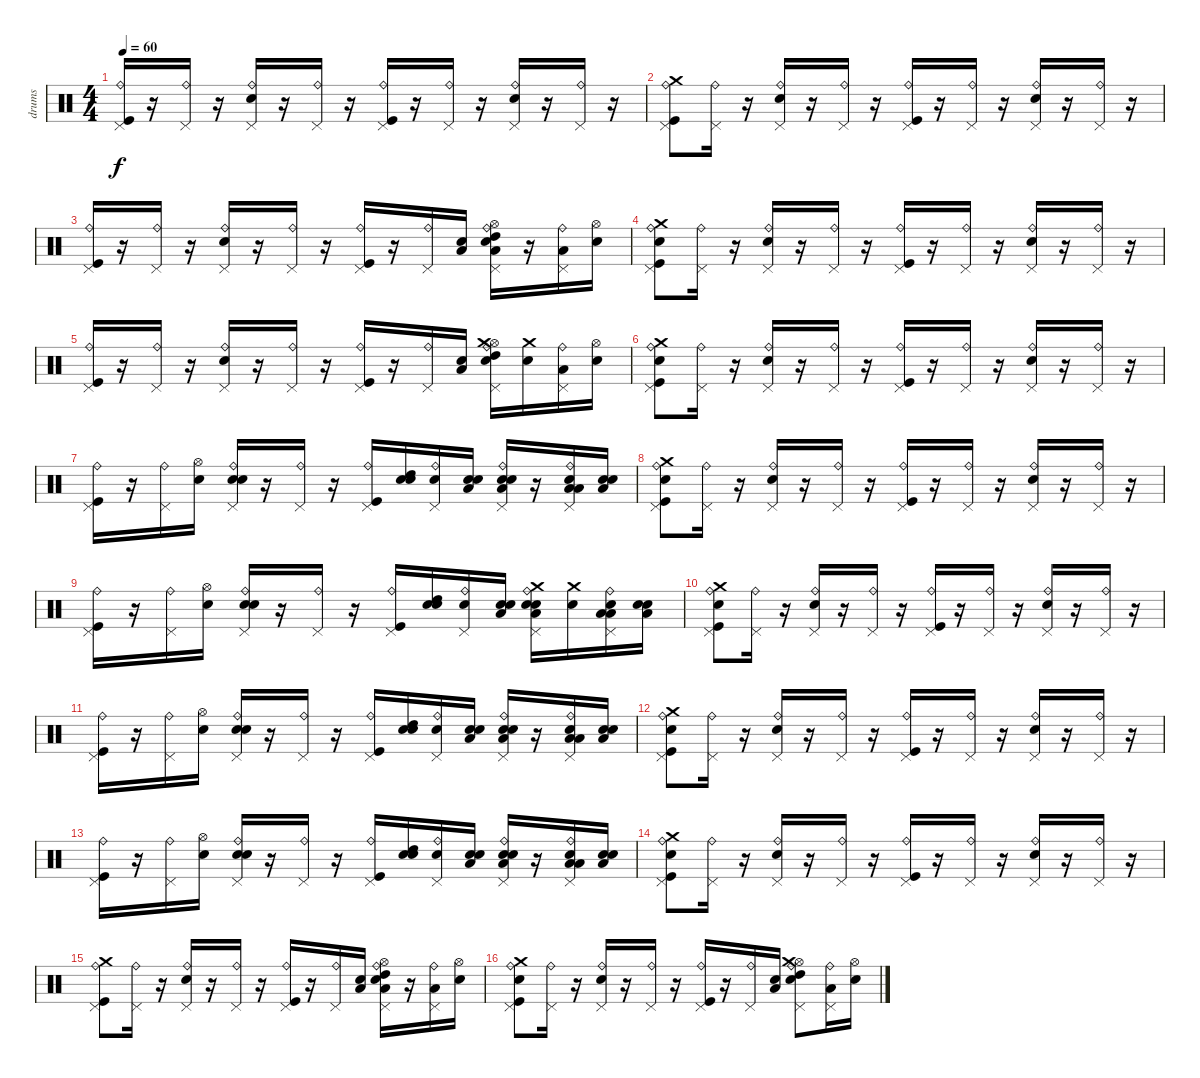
\track ("drums" "drums") {instrument percussion}
\staff {score}
\articulation defaults
\ts (4 4)
\tempo 60
\clef neutral
\ks c
("Kick (hit)" "Pedal Hi-Hat (hit)" "Ride (bell)").16{dy f} r.16 ("Pedal Hi-Hat (hit)" "Ride (bell)").16 r.16 ("Snare (hit) 2" "Pedal Hi-Hat (hit)" "Ride (bell)").16 r.16 ("Pedal Hi-Hat (hit)" "Ride (bell)").16 r.16 ("Kick (hit)" "Pedal Hi-Hat (hit)" "Ride (bell)").16 r.16 ("Pedal Hi-Hat (hit)" "Ride (bell)").16 r.16 ("Snare (hit) 2" "Pedal Hi-Hat (hit)" "Ride (bell)").16 r.16 ("Pedal Hi-Hat (hit)" "Ride (bell)").16 r.16 |
("Kick (hit)" "Pedal Hi-Hat (hit)" "Ride (bell)" "Crash medium (hit)").8 ("Pedal Hi-Hat (hit)" "Ride (bell)").16 r.16 ("Snare (hit) 2" "Pedal Hi-Hat (hit)" "Ride (bell)").16 r.16 ("Pedal Hi-Hat (hit)" "Ride (bell)").16 r.16 ("Kick (hit)" "Pedal Hi-Hat (hit)" "Ride (bell)").16 r.16 ("Pedal Hi-Hat (hit)" "Ride (bell)").16 r.16 ("Snare (hit) 2" "Pedal Hi-Hat (hit)" "Ride (bell)").16 r.16 ("Pedal Hi-Hat (hit)" "Ride (bell)").16 r.16 |
("Kick (hit)" "Pedal Hi-Hat (hit)" "Ride (bell)").16 r.16 ("Pedal Hi-Hat (hit)" "Ride (bell)").16 r.16 ("Snare (hit) 2" "Pedal Hi-Hat (hit)" "Ride (bell)").16 r.16 ("Pedal Hi-Hat (hit)" "Ride (bell)").16 r.16 ("Kick (hit)" "Pedal Hi-Hat (hit)" "Ride (bell)").16 r.16 ("Pedal Hi-Hat (hit)" "Ride (bell)").16 ("Snare (hit)" "Low Tom (hit)").16 ("Snare (hit)" "Pedal Hi-Hat (hit)" "Hi-Hat (open)" "Ride (bell)" "High Tom (hit)" "Low Tom (hit)").16 r.16 ("Pedal Hi-Hat (hit)" "Ride (bell)" "Low Floor Tom (hit)").16 ("Snare (hit)" "Hi-Hat (open)").16 |
("Snare (hit)" "Kick (hit)" "Pedal Hi-Hat (hit)" "Ride (bell)" "Crash medium (hit)").8 ("Pedal Hi-Hat (hit)" "Ride (bell)").16 r.16 ("Snare (hit) 2" "Pedal Hi-Hat (hit)" "Ride (bell)").16 r.16 ("Pedal Hi-Hat (hit)" "Ride (bell)").16 r.16 ("Kick (hit)" "Pedal Hi-Hat (hit)" "Ride (bell)").16 r.16 ("Pedal Hi-Hat (hit)" "Ride (bell)").16 r.16 ("Snare (hit) 2" "Pedal Hi-Hat (hit)" "Ride (bell)").16 r.16 ("Pedal Hi-Hat (hit)" "Ride (bell)").16 r.16 |
("Kick (hit)" "Pedal Hi-Hat (hit)" "Ride (bell)").16 r.16 ("Pedal Hi-Hat (hit)" "Ride (bell)").16 r.16 ("Snare (hit) 2" "Pedal Hi-Hat (hit)" "Ride (bell)").16 r.16 ("Pedal Hi-Hat (hit)" "Ride (bell)").16 r.16 ("Kick (hit)" "Pedal Hi-Hat (hit)" "Ride (bell)").16 r.16 ("Pedal Hi-Hat (hit)" "Ride (bell)").16 ("Snare (hit)" "Low Tom (hit)").16 ("Snare (hit)" "Pedal Hi-Hat (hit)" "Hi-Hat (open)" "Ride (bell)" "High Tom (hit)" "Crash medium (hit)").16 ("Snare (hit)" "Crash medium (hit)").16 ("Pedal Hi-Hat (hit)" "Ride (bell)" "Low Floor Tom (hit)").16 ("Snare (hit)" "Hi-Hat (open)").16 |
("Snare (hit)" "Kick (hit)" "Pedal Hi-Hat (hit)" "Ride (bell)" "Crash medium (hit)").8 ("Pedal Hi-Hat (hit)" "Ride (bell)").16 r.16 ("Snare (hit) 2" "Pedal Hi-Hat (hit)" "Ride (bell)").16 r.16 ("Pedal Hi-Hat (hit)" "Ride (bell)").16 r.16 ("Kick (hit)" "Pedal Hi-Hat (hit)" "Ride (bell)").16 r.16 ("Pedal Hi-Hat (hit)" "Ride (bell)").16 r.16 ("Snare (hit) 2" "Pedal Hi-Hat (hit)" "Ride (bell)").16 r.16 ("Pedal Hi-Hat (hit)" "Ride (bell)").16 r.16 |
("Kick (hit)" "Pedal Hi-Hat (hit)" "Ride (bell)").16 r.16 ("Pedal Hi-Hat (hit)" "Ride (bell)").16 ("Snare (hit)" "Hi-Hat (open)").16 ("Snare (hit)" "Snare (hit) 2" "Pedal Hi-Hat (hit)" "Ride (bell)").16 r.16 ("Pedal Hi-Hat (hit)" "Ride (bell)").16 r.16 ("Kick (hit)" "Pedal Hi-Hat (hit)" "Ride (bell)").16 ("Snare (hit)" "Snare (hit) 2" "High Tom (hit)").16 ("Snare (hit)" "Pedal Hi-Hat (hit)" "Ride (bell)").16 ("Snare (hit)" "Snare (hit) 2" "Low Floor Tom (hit)").16 ("Snare (hit)" "Snare (hit) 2" "Pedal Hi-Hat (hit)" "Ride (bell)" "Low Tom (hit)").16 r.16 ("Snare (hit) 2" "Pedal Hi-Hat (hit)" "Ride (bell)" "Low Tom (hit)" "Low Floor Tom (hit)").16 ("Snare (hit)" "Snare (hit) 2" "Low Floor Tom (hit)").16 |
("Snare (hit)" "Kick (hit)" "Pedal Hi-Hat (hit)" "Ride (bell)" "Crash medium (hit)").8 ("Pedal Hi-Hat (hit)" "Ride (bell)").16 r.16 ("Snare (hit) 2" "Pedal Hi-Hat (hit)" "Ride (bell)").16 r.16 ("Pedal Hi-Hat (hit)" "Ride (bell)").16 r.16 ("Kick (hit)" "Pedal Hi-Hat (hit)" "Ride (bell)").16 r.16 ("Pedal Hi-Hat (hit)" "Ride (bell)").16 r.16 ("Snare (hit) 2" "Pedal Hi-Hat (hit)" "Ride (bell)").16 r.16 ("Pedal Hi-Hat (hit)" "Ride (bell)").16 r.16 |
("Kick (hit)" "Pedal Hi-Hat (hit)" "Ride (bell)").16 r.16 ("Pedal Hi-Hat (hit)" "Ride (bell)").16 ("Snare (hit)" "Hi-Hat (open)").16 ("Snare (hit)" "Snare (hit) 2" "Pedal Hi-Hat (hit)" "Ride (bell)").16 r.16 ("Pedal Hi-Hat (hit)" "Ride (bell)").16 r.16 ("Kick (hit)" "Pedal Hi-Hat (hit)" "Ride (bell)").16 ("Snare (hit)" "Snare (hit) 2" "High Tom (hit)").16 ("Snare (hit)" "Pedal Hi-Hat (hit)" "Ride (bell)").16 ("Snare (hit)" "Snare (hit) 2" "Low Floor Tom (hit)").16 ("Snare (hit)" "Snare (hit) 2" "Pedal Hi-Hat (hit)" "Ride (bell)" "Low Tom (hit)" "Crash medium (hit)").16 ("Snare (hit)" "Crash medium (hit)").16 ("Snare (hit) 2" "Pedal Hi-Hat (hit)" "Ride (bell)" "Low Tom (hit)" "Low Floor Tom (hit)").16 ("Snare (hit)" "Snare (hit) 2" "Low Floor Tom (hit)").16 |
("Snare (hit)" "Kick (hit)" "Pedal Hi-Hat (hit)" "Ride (bell)" "Crash medium (hit)").8 ("Pedal Hi-Hat (hit)" "Ride (bell)").16 r.16 ("Snare (hit) 2" "Pedal Hi-Hat (hit)" "Ride (bell)").16 r.16 ("Pedal Hi-Hat (hit)" "Ride (bell)").16 r.16 ("Kick (hit)" "Pedal Hi-Hat (hit)" "Ride (bell)").16 r.16 ("Pedal Hi-Hat (hit)" "Ride (bell)").16 r.16 ("Snare (hit) 2" "Pedal Hi-Hat (hit)" "Ride (bell)").16 r.16 ("Pedal Hi-Hat (hit)" "Ride (bell)").16 r.16 |
("Kick (hit)" "Pedal Hi-Hat (hit)" "Ride (bell)").16 r.16 ("Pedal Hi-Hat (hit)" "Ride (bell)").16 ("Snare (hit)" "Hi-Hat (open)").16 ("Snare (hit)" "Snare (hit) 2" "Pedal Hi-Hat (hit)" "Ride (bell)").16 r.16 ("Pedal Hi-Hat (hit)" "Ride (bell)").16 r.16 ("Kick (hit)" "Pedal Hi-Hat (hit)" "Ride (bell)").16 ("Snare (hit)" "Snare (hit) 2" "High Tom (hit)").16 ("Snare (hit)" "Pedal Hi-Hat (hit)" "Ride (bell)").16 ("Snare (hit)" "Snare (hit) 2" "Low Floor Tom (hit)").16 ("Snare (hit)" "Snare (hit) 2" "Pedal Hi-Hat (hit)" "Ride (bell)" "Low Tom (hit)").16 r.16 ("Snare (hit) 2" "Pedal Hi-Hat (hit)" "Ride (bell)" "Low Tom (hit)" "Low Floor Tom (hit)").16 ("Snare (hit)" "Snare (hit) 2" "Low Floor Tom (hit)").16 |
("Snare (hit)" "Kick (hit)" "Pedal Hi-Hat (hit)" "Ride (bell)" "Crash medium (hit)").8 ("Pedal Hi-Hat (hit)" "Ride (bell)").16 r.16 ("Snare (hit) 2" "Pedal Hi-Hat (hit)" "Ride (bell)").16 r.16 ("Pedal Hi-Hat (hit)" "Ride (bell)").16 r.16 ("Kick (hit)" "Pedal Hi-Hat (hit)" "Ride (bell)").16 r.16 ("Pedal Hi-Hat (hit)" "Ride (bell)").16 r.16 ("Snare (hit) 2" "Pedal Hi-Hat (hit)" "Ride (bell)").16 r.16 ("Pedal Hi-Hat (hit)" "Ride (bell)").16 r.16 |
("Kick (hit)" "Pedal Hi-Hat (hit)" "Ride (bell)").16 r.16 ("Pedal Hi-Hat (hit)" "Ride (bell)").16 ("Snare (hit)" "Hi-Hat (open)").16 ("Snare (hit)" "Snare (hit) 2" "Pedal Hi-Hat (hit)" "Ride (bell)").16 r.16 ("Pedal Hi-Hat (hit)" "Ride (bell)").16 r.16 ("Kick (hit)" "Pedal Hi-Hat (hit)" "Ride (bell)").16 ("Snare (hit)" "Snare (hit) 2" "High Tom (hit)").16 ("Snare (hit)" "Pedal Hi-Hat (hit)" "Ride (bell)").16 ("Snare (hit)" "Snare (hit) 2" "Low Floor Tom (hit)").16 ("Snare (hit)" "Snare (hit) 2" "Pedal Hi-Hat (hit)" "Ride (bell)" "Low Tom (hit)").16 r.16 ("Snare (hit) 2" "Pedal Hi-Hat (hit)" "Ride (bell)" "Low Tom (hit)" "Low Floor Tom (hit)").16 ("Snare (hit)" "Snare (hit) 2" "Low Floor Tom (hit)").16 |
("Snare (hit)" "Kick (hit)" "Pedal Hi-Hat (hit)" "Ride (bell)" "Crash medium (hit)").8 ("Pedal Hi-Hat (hit)" "Ride (bell)").16 r.16 ("Snare (hit) 2" "Pedal Hi-Hat (hit)" "Ride (bell)").16 r.16 ("Pedal Hi-Hat (hit)" "Ride (bell)").16 r.16 ("Kick (hit)" "Pedal Hi-Hat (hit)" "Ride (bell)").16 r.16 ("Pedal Hi-Hat (hit)" "Ride (bell)").16 r.16 ("Snare (hit) 2" "Pedal Hi-Hat (hit)" "Ride (bell)").16 r.16 ("Pedal Hi-Hat (hit)" "Ride (bell)").16 r.16 |
("Kick (hit)" "Pedal Hi-Hat (hit)" "Ride (bell)" "Crash medium (hit)").8 ("Pedal Hi-Hat (hit)" "Ride (bell)").16 r.16 ("Snare (hit) 2" "Pedal Hi-Hat (hit)" "Ride (bell)").16 r.16 ("Pedal Hi-Hat (hit)" "Ride (bell)").16 r.16 ("Kick (hit)" "Pedal Hi-Hat (hit)" "Ride (bell)").16 r.16 ("Pedal Hi-Hat (hit)" "Ride (bell)").16 ("Snare (hit)" "Low Tom (hit)").16 ("Snare (hit)" "Pedal Hi-Hat (hit)" "Hi-Hat (open)" "Ride (bell)" "High Tom (hit)" "Low Tom (hit)").16 r.16 ("Pedal Hi-Hat (hit)" "Ride (bell)" "Low Floor Tom (hit)").16 ("Snare (hit)" "Hi-Hat (open)").16 |
("Snare (hit)" "Kick (hit)" "Pedal Hi-Hat (hit)" "Ride (bell)" "Crash medium (hit)").8 ("Pedal Hi-Hat (hit)" "Ride (bell)").16 r.16 ("Snare (hit) 2" "Pedal Hi-Hat (hit)" "Ride (bell)").16 r.16 ("Pedal Hi-Hat (hit)" "Ride (bell)").16 r.16 ("Kick (hit)" "Pedal Hi-Hat (hit)" "Ride (bell)").16 r.16 ("Pedal Hi-Hat (hit)" "Ride (bell)").16 ("Snare (hit)" "Low Tom (hit)").16 ("Snare (hit)" "Pedal Hi-Hat (hit)" "Hi-Hat (open)" "Ride (bell)" "High Tom (hit)" "Crash medium (hit)").8 ("Pedal Hi-Hat (hit)" "Ride (bell)" "Low Floor Tom (hit)").16 ("Snare (hit)" "Hi-Hat (open)").16
